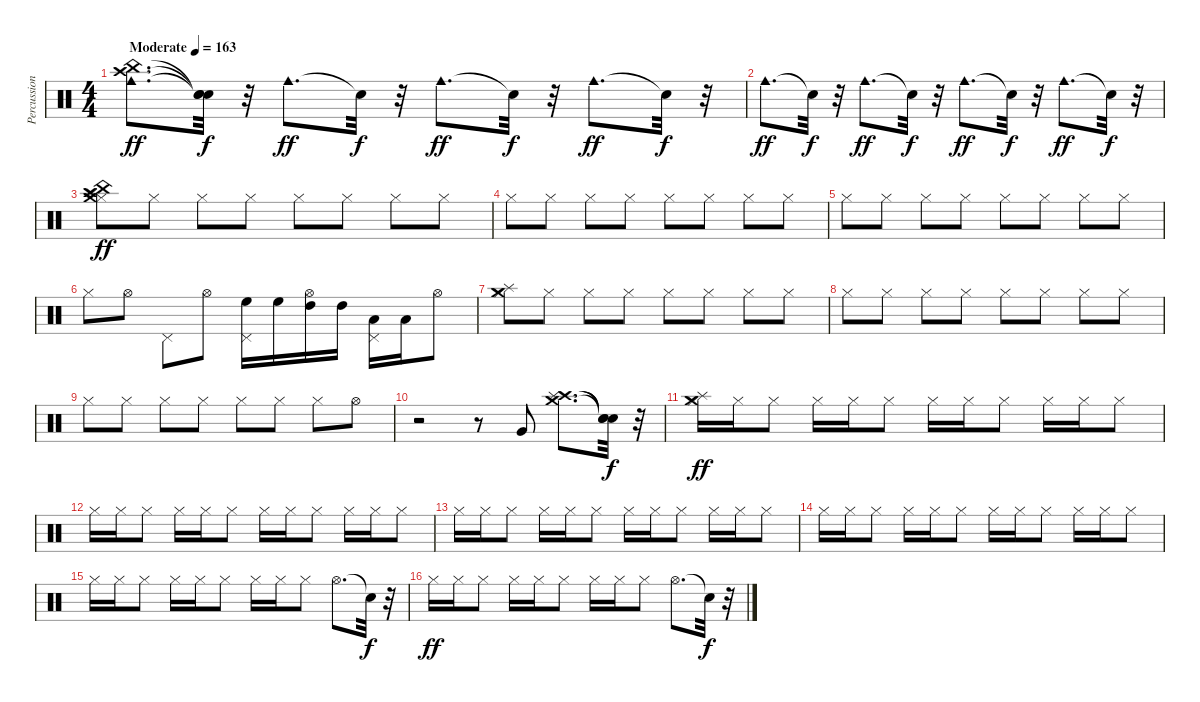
\track ("Percussion (Standard Kit)" "Percussion") {instrument percussion}
\staff {score}
\articulation defaults
\ts (4 4)
\tempo (163 "Moderate")
\clef neutral
\ks c
("Crash high (hit)" "China (hit)" "Cowbell medium (hit)").8{d dy ff} ("Snare (hit)"{t} "Snare (hit)"{t} "Snare (hit)"{t}).32{dy f} r.32 "Cowbell medium (hit)".8{d dy ff} "Snare (hit)"{t}.32{dy f} r.32 "Cowbell medium (hit)".8{d dy ff} "Snare (hit)"{t}.32{dy f} r.32 "Cowbell medium (hit)".8{d dy ff} "Snare (hit)"{t}.32{dy f} r.32 |
"Cowbell medium (hit)".8{d dy ff} "Snare (hit)"{t}.32{dy f} r.32 "Cowbell medium (hit)".8{d dy ff} "Snare (hit)"{t}.32{dy f} r.32 "Cowbell medium (hit)".8{d dy ff} "Snare (hit)"{t}.32{dy f} r.32 "Cowbell medium (hit)".8{d dy ff} "Snare (hit)"{t}.32{dy f} r.32 |
("Hi-Hat (closed)" "Crash high (hit)" "China (hit)" "Splash (hit)" "Crash medium (hit)").8{dy ff} "Hi-Hat (closed)".8 "Hi-Hat (closed)".8 "Hi-Hat (closed)".8 "Hi-Hat (closed)".8 "Hi-Hat (closed)".8 "Hi-Hat (closed)".8 "Hi-Hat (closed)".8 |
"Hi-Hat (closed)".8 "Hi-Hat (closed)".8 "Hi-Hat (closed)".8 "Hi-Hat (closed)".8 "Hi-Hat (closed)".8 "Hi-Hat (closed)".8 "Hi-Hat (closed)".8 "Hi-Hat (closed)".8 |
"Hi-Hat (closed)".8 "Hi-Hat (closed)".8 "Hi-Hat (closed)".8 "Hi-Hat (closed)".8 "Hi-Hat (closed)".8 "Hi-Hat (closed)".8 "Hi-Hat (closed)".8 "Hi-Hat (closed)".8 |
"Hi-Hat (closed)".8 "Hi-Hat (open)".8 "Pedal Hi-Hat (hit)".8 "Hi-Hat (open)".8 ("Pedal Hi-Hat (hit)" "High Floor Tom (hit)").16 "High Floor Tom (hit)".16 ("Hi-Hat (open)" "High Tom (hit)").16 "High Tom (hit)".16 ("Pedal Hi-Hat (hit)" "Low Tom (hit)").16 "Low Tom (hit)".16 "Hi-Hat (open)".8 |
("Hi-Hat (closed)" "Splash (hit)" "Crash medium (hit)").8 "Hi-Hat (closed)".8 "Hi-Hat (closed)".8 "Hi-Hat (closed)".8 "Hi-Hat (closed)".8 "Hi-Hat (closed)".8 "Hi-Hat (closed)".8 "Hi-Hat (closed)".8 |
"Hi-Hat (closed)".8 "Hi-Hat (closed)".8 "Hi-Hat (closed)".8 "Hi-Hat (closed)".8 "Hi-Hat (closed)".8 "Hi-Hat (closed)".8 "Hi-Hat (closed)".8 "Hi-Hat (closed)".8 |
"Hi-Hat (closed)".8 "Hi-Hat (closed)".8 "Hi-Hat (closed)".8 "Hi-Hat (closed)".8 "Hi-Hat (closed)".8 "Hi-Hat (closed)".8 "Hi-Hat (closed)".8 "Hi-Hat (open)".8 |
r.2 r.8 "Very Low Tom (hit)".8 ("Crash high (hit)" "Splash (hit)" "Crash medium (hit)").8{d} ("Snare (hit)"{t} "Snare (hit)"{t} "Snare (hit)"{t}).32{dy f} r.32 |
("Hi-Hat (closed)" "Splash (hit)" "Crash medium (hit)").16{dy ff} "Hi-Hat (closed)".16 "Hi-Hat (closed)".8 "Hi-Hat (closed)".16 "Hi-Hat (closed)".16 "Hi-Hat (closed)".8 "Hi-Hat (closed)".16 "Hi-Hat (closed)".16 "Hi-Hat (closed)".8 "Hi-Hat (closed)".16 "Hi-Hat (closed)".16 "Hi-Hat (closed)".8 |
"Hi-Hat (closed)".16 "Hi-Hat (closed)".16 "Hi-Hat (closed)".8 "Hi-Hat (closed)".16 "Hi-Hat (closed)".16 "Hi-Hat (closed)".8 "Hi-Hat (closed)".16 "Hi-Hat (closed)".16 "Hi-Hat (closed)".8 "Hi-Hat (closed)".16 "Hi-Hat (closed)".16 "Hi-Hat (closed)".8 |
"Hi-Hat (closed)".16 "Hi-Hat (closed)".16 "Hi-Hat (closed)".8 "Hi-Hat (closed)".16 "Hi-Hat (closed)".16 "Hi-Hat (closed)".8 "Hi-Hat (closed)".16 "Hi-Hat (closed)".16 "Hi-Hat (closed)".8 "Hi-Hat (closed)".16 "Hi-Hat (closed)".16 "Hi-Hat (closed)".8 |
"Hi-Hat (closed)".16 "Hi-Hat (closed)".16 "Hi-Hat (closed)".8 "Hi-Hat (closed)".16 "Hi-Hat (closed)".16 "Hi-Hat (closed)".8 "Hi-Hat (closed)".16 "Hi-Hat (closed)".16 "Hi-Hat (closed)".8 "Hi-Hat (closed)".16 "Hi-Hat (closed)".16 "Hi-Hat (closed)".8 |
"Hi-Hat (closed)".16 "Hi-Hat (closed)".16 "Hi-Hat (closed)".8 "Hi-Hat (closed)".16 "Hi-Hat (closed)".16 "Hi-Hat (closed)".8 "Hi-Hat (closed)".16 "Hi-Hat (closed)".16 "Hi-Hat (closed)".8 "Hi-Hat (open)".8{d} "Snare (hit)"{t}.32{dy f} r.32 |
"Hi-Hat (closed)".16{dy ff} "Hi-Hat (closed)".16 "Hi-Hat (closed)".8 "Hi-Hat (closed)".16 "Hi-Hat (closed)".16 "Hi-Hat (closed)".8 "Hi-Hat (closed)".16 "Hi-Hat (closed)".16 "Hi-Hat (closed)".8 "Hi-Hat (open)".8{d} "Snare (hit)"{t}.32{dy f} r.32
